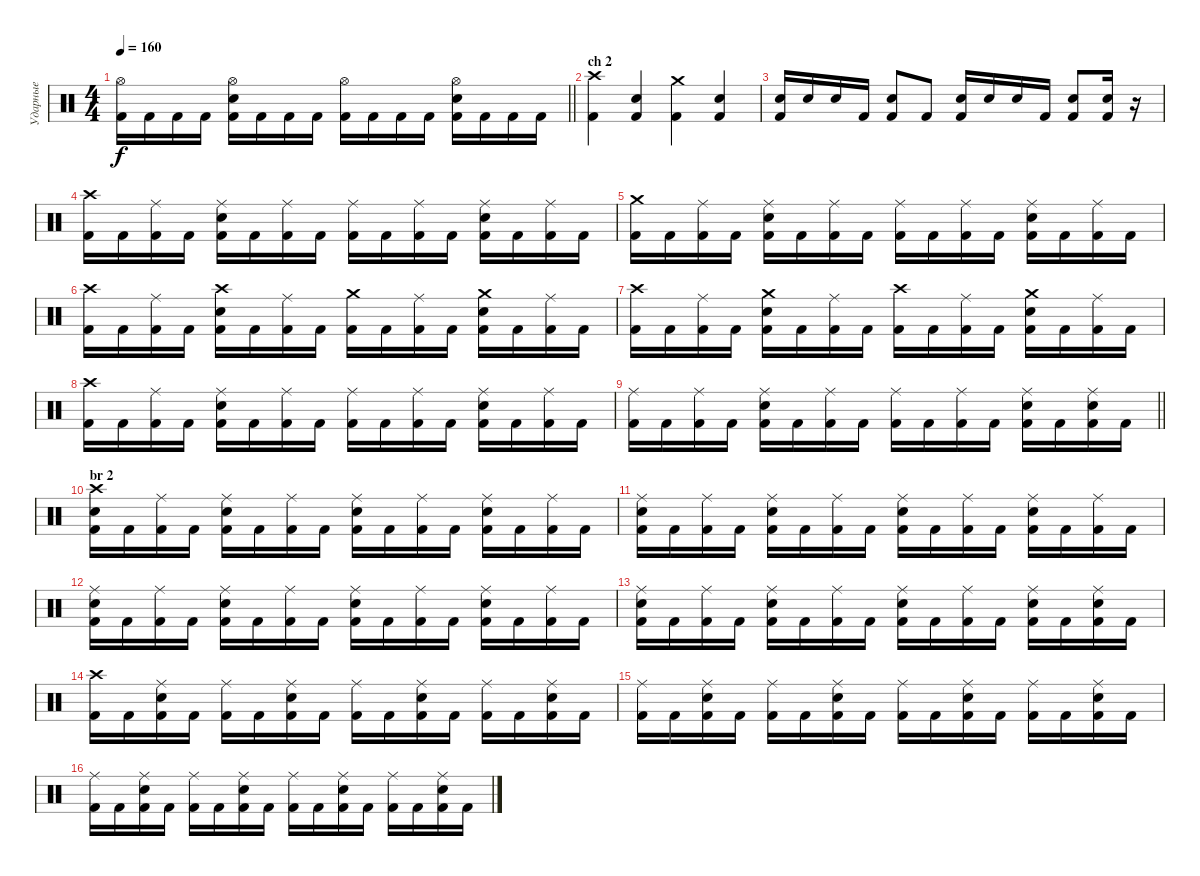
\track ("Ударные" "Ударные") {instrument percussion}
\staff {score}
\articulation defaults
\ts (4 4)
\tempo 160
\clef neutral
\barLineRight lightlight
\ks c
("Hi-Hat (open)" "Kick (hit) 2").16{dy f} "Kick (hit) 2".16 "Kick (hit) 2".16 "Kick (hit) 2".16 ("Hi-Hat (open)" "Electric Snare (hit)" "Kick (hit) 2").16 "Kick (hit) 2".16 "Kick (hit) 2".16 "Kick (hit) 2".16 ("Hi-Hat (open)" "Kick (hit) 2").16 "Kick (hit) 2".16 "Kick (hit) 2".16 "Kick (hit) 2".16 ("Hi-Hat (open)" "Electric Snare (hit)" "Kick (hit) 2").16 "Kick (hit) 2".16 "Kick (hit) 2".16 "Kick (hit) 2".16 |
\section ("" "ch 2")
("Crash high (hit)" "Kick (hit) 2").4 ("Electric Snare (hit)" "Kick (hit) 2").4 ("Crash medium (hit)" "Kick (hit) 2").4 ("Electric Snare (hit)" "Kick (hit) 2").4 |
("Electric Snare (hit)" "Kick (hit) 2").16 "Electric Snare (hit)".16 "Electric Snare (hit)".16 "Kick (hit) 2".16 ("Electric Snare (hit)" "Kick (hit) 2").8 "Kick (hit) 2".8 ("Electric Snare (hit)" "Kick (hit) 2").16 "Electric Snare (hit)".16 "Electric Snare (hit)".16 "Kick (hit) 2".16 ("Electric Snare (hit)" "Kick (hit) 2").8 ("Electric Snare (hit)" "Kick (hit) 2").16 r.16 |
("Crash high (hit)" "Kick (hit) 2").16 "Kick (hit) 2".16 ("Ride (middle)" "Kick (hit) 2").16 "Kick (hit) 2".16 ("Ride (middle)" "Electric Snare (hit)" "Kick (hit) 2").16 "Kick (hit) 2".16 ("Ride (middle)" "Kick (hit) 2").16 "Kick (hit) 2".16 ("Ride (middle)" "Kick (hit) 2").16 "Kick (hit) 2".16 ("Ride (middle)" "Kick (hit) 2").16 "Kick (hit) 2".16 ("Ride (middle)" "Electric Snare (hit)" "Kick (hit) 2").16 "Kick (hit) 2".16 ("Ride (middle)" "Kick (hit) 2").16 "Kick (hit) 2".16 |
("Crash medium (hit)" "Kick (hit) 2").16 "Kick (hit) 2".16 ("Ride (middle)" "Kick (hit) 2").16 "Kick (hit) 2".16 ("Ride (middle)" "Electric Snare (hit)" "Kick (hit) 2").16 "Kick (hit) 2".16 ("Ride (middle)" "Kick (hit) 2").16 "Kick (hit) 2".16 ("Ride (middle)" "Kick (hit) 2").16 "Kick (hit) 2".16 ("Ride (middle)" "Kick (hit) 2").16 "Kick (hit) 2".16 ("Ride (middle)" "Electric Snare (hit)" "Kick (hit) 2").16 "Kick (hit) 2".16 ("Ride (middle)" "Kick (hit) 2").16 "Kick (hit) 2".16 |
("Crash high (hit)" "Kick (hit) 2").16 "Kick (hit) 2".16 ("Ride (middle)" "Kick (hit) 2").16 "Kick (hit) 2".16 ("Crash high (hit)" "Electric Snare (hit)" "Kick (hit) 2").16 "Kick (hit) 2".16 ("Ride (middle)" "Kick (hit) 2").16 "Kick (hit) 2".16 ("Crash medium (hit)" "Kick (hit) 2").16 "Kick (hit) 2".16 ("Ride (middle)" "Kick (hit) 2").16 "Kick (hit) 2".16 ("Crash medium (hit)" "Electric Snare (hit)" "Kick (hit) 2").16 "Kick (hit) 2".16 ("Ride (middle)" "Kick (hit) 2").16 "Kick (hit) 2".16 |
("Crash high (hit)" "Kick (hit) 2").16 "Kick (hit) 2".16 ("Ride (middle)" "Kick (hit) 2").16 "Kick (hit) 2".16 ("Crash medium (hit)" "Electric Snare (hit)" "Kick (hit) 2").16 "Kick (hit) 2".16 ("Ride (middle)" "Kick (hit) 2").16 "Kick (hit) 2".16 ("Crash high (hit)" "Kick (hit) 2").16 "Kick (hit) 2".16 ("Ride (middle)" "Kick (hit) 2").16 "Kick (hit) 2".16 ("Crash medium (hit)" "Electric Snare (hit)" "Kick (hit) 2").16 "Kick (hit) 2".16 ("Ride (middle)" "Kick (hit) 2").16 "Kick (hit) 2".16 |
("Crash high (hit)" "Kick (hit) 2").16 "Kick (hit) 2".16 ("Ride (middle)" "Kick (hit) 2").16 "Kick (hit) 2".16 ("Ride (middle)" "Electric Snare (hit)" "Kick (hit) 2").16 "Kick (hit) 2".16 ("Ride (middle)" "Kick (hit) 2").16 "Kick (hit) 2".16 ("Ride (middle)" "Kick (hit) 2").16 "Kick (hit) 2".16 ("Ride (middle)" "Kick (hit) 2").16 "Kick (hit) 2".16 ("Ride (middle)" "Electric Snare (hit)" "Kick (hit) 2").16 "Kick (hit) 2".16 ("Ride (middle)" "Kick (hit) 2").16 "Kick (hit) 2".16 |
\barLineRight lightlight
("Ride (middle)" "Kick (hit) 2").16 "Kick (hit) 2".16 ("Ride (middle)" "Kick (hit) 2").16 "Kick (hit) 2".16 ("Ride (middle)" "Electric Snare (hit)" "Kick (hit) 2").16 "Kick (hit) 2".16 ("Ride (middle)" "Kick (hit) 2").16 "Kick (hit) 2".16 ("Ride (middle)" "Kick (hit) 2").16 "Kick (hit) 2".16 ("Ride (middle)" "Kick (hit) 2").16 "Kick (hit) 2".16 ("Ride (middle)" "Electric Snare (hit)" "Kick (hit) 2").16 "Kick (hit) 2".16 ("Ride (middle)" "Electric Snare (hit)" "Kick (hit) 2").16 "Kick (hit) 2".16 |
\section ("" "br 2")
("Crash high (hit)" "Electric Snare (hit)" "Kick (hit) 2").16 "Kick (hit) 2".16 ("Ride (middle)" "Kick (hit) 2").16 "Kick (hit) 2".16 ("Ride (middle)" "Electric Snare (hit)" "Kick (hit) 2").16 "Kick (hit) 2".16 ("Ride (middle)" "Kick (hit) 2").16 "Kick (hit) 2".16 ("Ride (middle)" "Electric Snare (hit)" "Kick (hit) 2").16 "Kick (hit) 2".16 ("Ride (middle)" "Kick (hit) 2").16 "Kick (hit) 2".16 ("Ride (middle)" "Electric Snare (hit)" "Kick (hit) 2").16 "Kick (hit) 2".16 ("Ride (middle)" "Kick (hit) 2").16 "Kick (hit) 2".16 |
("Ride (middle)" "Electric Snare (hit)" "Kick (hit) 2").16 "Kick (hit) 2".16 ("Ride (middle)" "Kick (hit) 2").16 "Kick (hit) 2".16 ("Ride (middle)" "Electric Snare (hit)" "Kick (hit) 2").16 "Kick (hit) 2".16 ("Ride (middle)" "Kick (hit) 2").16 "Kick (hit) 2".16 ("Ride (middle)" "Electric Snare (hit)" "Kick (hit) 2").16 "Kick (hit) 2".16 ("Ride (middle)" "Kick (hit) 2").16 "Kick (hit) 2".16 ("Ride (middle)" "Electric Snare (hit)" "Kick (hit) 2").16 "Kick (hit) 2".16 ("Ride (middle)" "Kick (hit) 2").16 "Kick (hit) 2".16 |
("Ride (middle)" "Electric Snare (hit)" "Kick (hit) 2").16 "Kick (hit) 2".16 ("Ride (middle)" "Kick (hit) 2").16 "Kick (hit) 2".16 ("Ride (middle)" "Electric Snare (hit)" "Kick (hit) 2").16 "Kick (hit) 2".16 ("Ride (middle)" "Kick (hit) 2").16 "Kick (hit) 2".16 ("Ride (middle)" "Electric Snare (hit)" "Kick (hit) 2").16 "Kick (hit) 2".16 ("Ride (middle)" "Kick (hit) 2").16 "Kick (hit) 2".16 ("Ride (middle)" "Electric Snare (hit)" "Kick (hit) 2").16 "Kick (hit) 2".16 ("Ride (middle)" "Kick (hit) 2").16 "Kick (hit) 2".16 |
("Ride (middle)" "Electric Snare (hit)" "Kick (hit) 2").16 "Kick (hit) 2".16 ("Ride (middle)" "Kick (hit) 2").16 "Kick (hit) 2".16 ("Ride (middle)" "Electric Snare (hit)" "Kick (hit) 2").16 "Kick (hit) 2".16 ("Ride (middle)" "Kick (hit) 2").16 "Kick (hit) 2".16 ("Ride (middle)" "Electric Snare (hit)" "Kick (hit) 2").16 "Kick (hit) 2".16 ("Ride (middle)" "Kick (hit) 2").16 "Kick (hit) 2".16 ("Ride (middle)" "Electric Snare (hit)" "Kick (hit) 2").16 "Kick (hit) 2".16 ("Ride (middle)" "Electric Snare (hit)" "Kick (hit) 2").16 "Kick (hit) 2".16 |
("Crash high (hit)" "Kick (hit) 2").16 "Kick (hit) 2".16 ("Ride (middle)" "Electric Snare (hit)" "Kick (hit) 2").16 "Kick (hit) 2".16 ("Ride (middle)" "Kick (hit) 2").16 "Kick (hit) 2".16 ("Ride (middle)" "Electric Snare (hit)" "Kick (hit) 2").16 "Kick (hit) 2".16 ("Ride (middle)" "Kick (hit) 2").16 "Kick (hit) 2".16 ("Ride (middle)" "Electric Snare (hit)" "Kick (hit) 2").16 "Kick (hit) 2".16 ("Ride (middle)" "Kick (hit) 2").16 "Kick (hit) 2".16 ("Ride (middle)" "Electric Snare (hit)" "Kick (hit) 2").16 "Kick (hit) 2".16 |
("Ride (middle)" "Kick (hit) 2").16 "Kick (hit) 2".16 ("Ride (middle)" "Electric Snare (hit)" "Kick (hit) 2").16 "Kick (hit) 2".16 ("Ride (middle)" "Kick (hit) 2").16 "Kick (hit) 2".16 ("Ride (middle)" "Electric Snare (hit)" "Kick (hit) 2").16 "Kick (hit) 2".16 ("Ride (middle)" "Kick (hit) 2").16 "Kick (hit) 2".16 ("Ride (middle)" "Electric Snare (hit)" "Kick (hit) 2").16 "Kick (hit) 2".16 ("Ride (middle)" "Kick (hit) 2").16 "Kick (hit) 2".16 ("Ride (middle)" "Electric Snare (hit)" "Kick (hit) 2").16 "Kick (hit) 2".16 |
("Ride (middle)" "Kick (hit) 2").16 "Kick (hit) 2".16 ("Ride (middle)" "Electric Snare (hit)" "Kick (hit) 2").16 "Kick (hit) 2".16 ("Ride (middle)" "Kick (hit) 2").16 "Kick (hit) 2".16 ("Ride (middle)" "Electric Snare (hit)" "Kick (hit) 2").16 "Kick (hit) 2".16 ("Ride (middle)" "Kick (hit) 2").16 "Kick (hit) 2".16 ("Ride (middle)" "Electric Snare (hit)" "Kick (hit) 2").16 "Kick (hit) 2".16 ("Ride (middle)" "Kick (hit) 2").16 "Kick (hit) 2".16 ("Ride (middle)" "Electric Snare (hit)" "Kick (hit) 2").16 "Kick (hit) 2".16
